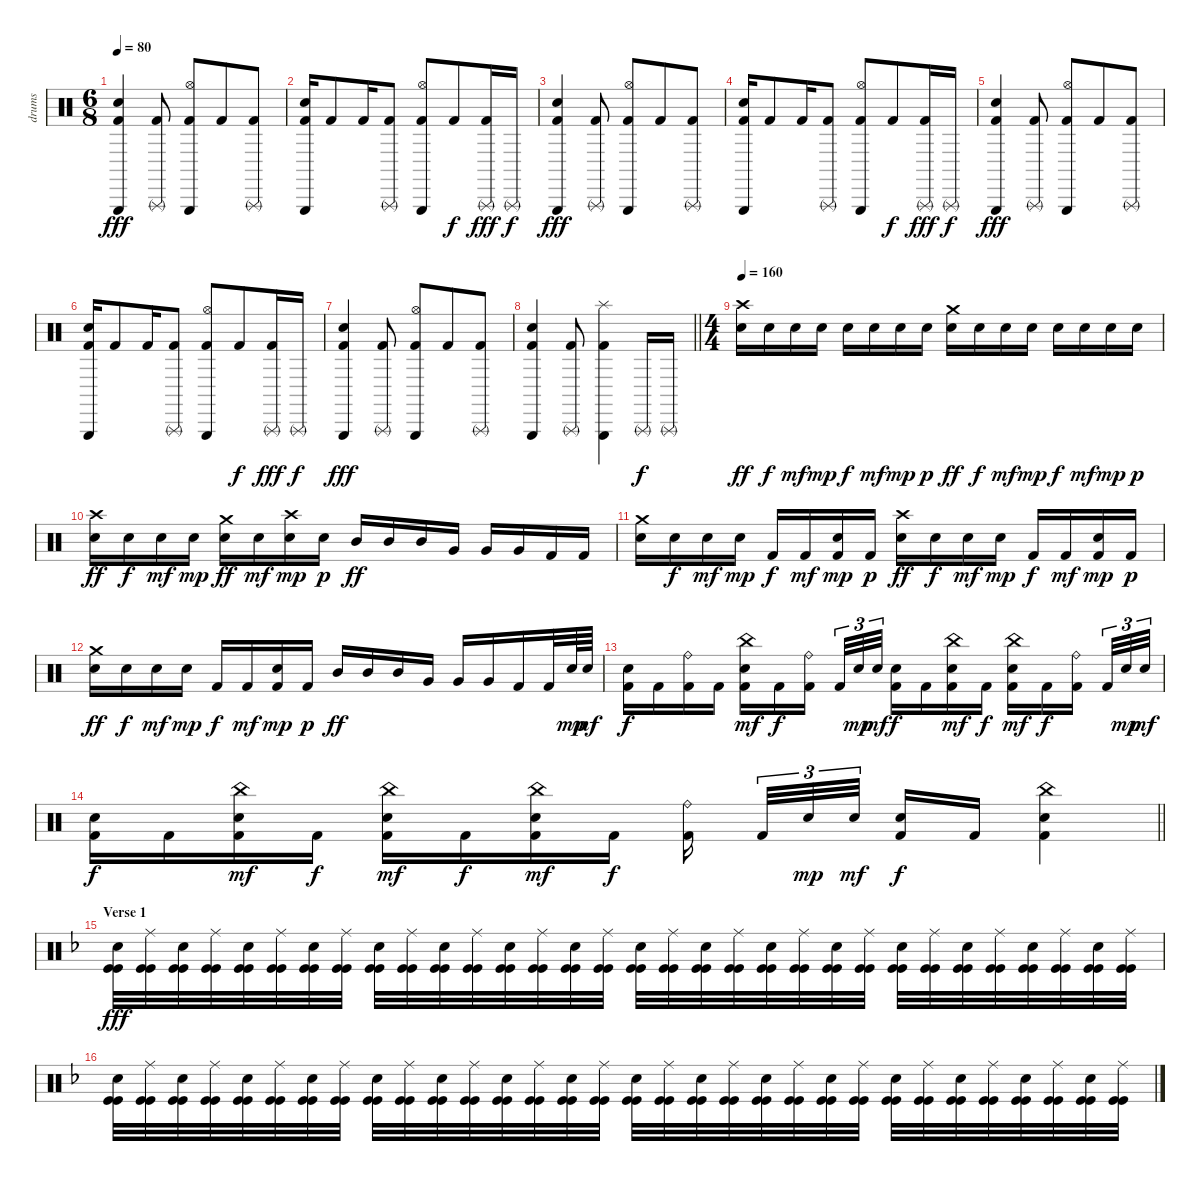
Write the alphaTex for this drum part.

\track ("drums" "drums") {instrument percussion}
\staff {score}
\articulation defaults
\ts (6 8)
\tempo 80
\clef neutral
\ks c
("Kick (hit) 2" "Electric Snare (hit)" "Triangle (hit)").4{dy fff} ("Kick (hit) 2" "Triangle (rnute)").8 ("Kick (hit) 2" "Hi-Hat (open)" "Triangle (hit)").8 "Kick (hit) 2".8 ("Kick (hit) 2" "Triangle (rnute)").8 |
("Kick (hit) 2" "Electric Snare (hit)" "Triangle (hit)").16 "Kick (hit) 2".8 "Kick (hit) 2".16 ("Kick (hit) 2" "Triangle (rnute)").8 ("Kick (hit) 2" "Hi-Hat (open)" "Triangle (hit)").8 "Kick (hit) 2".8{dy f} ("Kick (hit) 2" "Triangle (rnute)").16{dy fff} "Triangle (rnute)".16{dy f} |
("Kick (hit) 2" "Electric Snare (hit)" "Triangle (hit)").4{dy fff} ("Kick (hit) 2" "Triangle (rnute)").8 ("Kick (hit) 2" "Hi-Hat (open)" "Triangle (hit)").8 "Kick (hit) 2".8 ("Kick (hit) 2" "Triangle (rnute)").8 |
("Kick (hit) 2" "Electric Snare (hit)" "Triangle (hit)").16 "Kick (hit) 2".8 "Kick (hit) 2".16 ("Kick (hit) 2" "Triangle (rnute)").8 ("Kick (hit) 2" "Hi-Hat (open)" "Triangle (hit)").8 "Kick (hit) 2".8{dy f} ("Kick (hit) 2" "Triangle (rnute)").16{dy fff} "Triangle (rnute)".16{dy f} |
("Kick (hit) 2" "Electric Snare (hit)" "Triangle (hit)").4{dy fff} ("Kick (hit) 2" "Triangle (rnute)").8 ("Kick (hit) 2" "Hi-Hat (open)" "Triangle (hit)").8 "Kick (hit) 2".8 ("Kick (hit) 2" "Triangle (rnute)").8 |
("Kick (hit) 2" "Electric Snare (hit)" "Triangle (hit)").16 "Kick (hit) 2".8 "Kick (hit) 2".16 ("Kick (hit) 2" "Triangle (rnute)").8 ("Kick (hit) 2" "Hi-Hat (open)" "Triangle (hit)").8 "Kick (hit) 2".8{dy f} ("Kick (hit) 2" "Triangle (rnute)").16{dy fff} "Triangle (rnute)".16{dy f} |
("Kick (hit) 2" "Electric Snare (hit)" "Triangle (hit)").4{dy fff} ("Kick (hit) 2" "Triangle (rnute)").8 ("Kick (hit) 2" "Hi-Hat (open)" "Triangle (hit)").8 "Kick (hit) 2".8 ("Kick (hit) 2" "Triangle (rnute)").8 |
\barLineRight lightlight
("Kick (hit) 2" "Electric Snare (hit)" "Triangle (hit)").4 ("Kick (hit) 2" "Triangle (rnute)").8 ("Kick (hit) 2" "Splash (hit)" "Triangle (hit)").4 "Triangle (rnute)".16{dy f} "Triangle (rnute)".16 |
\ts (4 4)
\tempo 160
("Crash high (hit)" "Electric Snare (hit)").16{dy ff} "Electric Snare (hit)".16{dy f} "Electric Snare (hit)".16{dy mf} "Electric Snare (hit)".16{dy mp} "Electric Snare (hit)".16{dy f} "Electric Snare (hit)".16{dy mf} "Electric Snare (hit)".16{dy mp} "Electric Snare (hit)".16{dy p} ("Crash medium (hit)" "Electric Snare (hit)").16{dy ff} "Electric Snare (hit)".16{dy f} "Electric Snare (hit)".16{dy mf} "Electric Snare (hit)".16{dy mp} "Electric Snare (hit)".16{dy f} "Electric Snare (hit)".16{dy mf} "Electric Snare (hit)".16{dy mp} "Electric Snare (hit)".16{dy p} |
("Crash high (hit)" "Electric Snare (hit)").16{dy ff} "Electric Snare (hit)".16{dy f} "Electric Snare (hit)".16{dy mf} "Electric Snare (hit)".16{dy mp} ("Crash medium (hit)" "Electric Snare (hit)").16{dy ff} "Electric Snare (hit)".16{dy mf} ("Crash high (hit)" "Electric Snare (hit)").16{dy mp} "Electric Snare (hit)".16{dy p} "Mid Tom (hit)".16{dy ff} "Mid Tom (hit)".16 "Mid Tom (hit)".16 "Very Low Tom (hit)".16 "Very Low Tom (hit)".16 "Very Low Tom (hit)".16 "Kick (hit) 2".16 "Kick (hit) 2".16 |
("Crash medium (hit)" "Electric Snare (hit)").16 "Electric Snare (hit)".16{dy f} "Electric Snare (hit)".16{dy mf} "Electric Snare (hit)".16{dy mp} "Kick (hit) 2".16{dy f} "Kick (hit) 2".16{dy mf} ("Electric Snare (hit)" "Kick (hit) 2").16{dy mp} "Kick (hit) 2".16{dy p} ("Crash high (hit)" "Electric Snare (hit)").16{dy ff} "Electric Snare (hit)".16{dy f} "Electric Snare (hit)".16{dy mf} "Electric Snare (hit)".16{dy mp} "Kick (hit) 2".16{dy f} "Kick (hit) 2".16{dy mf} ("Electric Snare (hit)" "Kick (hit) 2").16{dy mp} "Kick (hit) 2".16{dy p} |
("Crash medium (hit)" "Electric Snare (hit)").16{dy ff} "Electric Snare (hit)".16{dy f} "Electric Snare (hit)".16{dy mf} "Electric Snare (hit)".16{dy mp} "Kick (hit) 2".16{dy f} "Kick (hit) 2".16{dy mf} ("Electric Snare (hit)" "Kick (hit) 2").16{dy mp} "Kick (hit) 2".16{dy p} "Mid Tom (hit)".16{dy ff} "Mid Tom (hit)".16 "Mid Tom (hit)".16 "Very Low Tom (hit)".16 "Very Low Tom (hit)".16 "Very Low Tom (hit)".16 "Kick (hit) 2".16 "Kick (hit) 2".32 "Electric Snare (hit)".64{dy mp} "Electric Snare (hit)".64{dy mf} |
("Electric Snare (hit)" "Kick (hit) 2").16{dy f} "Kick (hit) 2".16 ("Ride (bell)" "Kick (hit) 2").16 "Kick (hit) 2".16 ("China (hit)" "Electric Snare (hit)" "Kick (hit) 2").16{dy mf} "Kick (hit) 2".16{dy f} ("Ride (bell)" "Kick (hit) 2").16{beam splitsecondary} "Kick (hit) 2".32{tu (3 2)} "Electric Snare (hit)".32{tu (3 2) dy mp} "Electric Snare (hit)".32{tu (3 2) dy mf} ("Electric Snare (hit)" "Kick (hit) 2").16{dy f} "Kick (hit) 2".16 ("China (hit)" "Electric Snare (hit)" "Kick (hit) 2").16{dy mf} "Kick (hit) 2".16{dy f} ("China (hit)" "Electric Snare (hit)" "Kick (hit) 2").16{dy mf} "Kick (hit) 2".16{dy f} ("Ride (bell)" "Kick (hit) 2").16{beam splitsecondary} "Kick (hit) 2".32{tu (3 2)} "Electric Snare (hit)".32{tu (3 2) dy mp} "Electric Snare (hit)".32{tu (3 2) dy mf} |
\barLineRight lightlight
("Electric Snare (hit)" "Kick (hit) 2").16{dy f} "Kick (hit) 2".16 ("China (hit)" "Electric Snare (hit)" "Kick (hit) 2").16{dy mf} "Kick (hit) 2".16{dy f} ("China (hit)" "Electric Snare (hit)" "Kick (hit) 2").16{dy mf} "Kick (hit) 2".16{dy f} ("China (hit)" "Electric Snare (hit)" "Kick (hit) 2").16{dy mf} "Kick (hit) 2".16{dy f} ("Ride (bell)" "Kick (hit) 2").16{beam splitsecondary} "Kick (hit) 2".32{tu (3 2)} "Electric Snare (hit)".32{tu (3 2) dy mp} "Electric Snare (hit)".32{tu (3 2) dy mf beam splitsecondary} ("Electric Snare (hit)" "Kick (hit) 2").16{dy f} "Kick (hit) 2".16 ("China (hit)" "Electric Snare (hit)" "Kick (hit) 2").4 |
\section ("" "Verse 1")
\ks dminor
("Kick (hit)" "Kick (hit)" "Electric Snare (hit)").32{dy fff} ("Kick (hit)" "Kick (hit)" "Ride (middle)").32 ("Kick (hit)" "Kick (hit)" "Electric Snare (hit)").32 ("Kick (hit)" "Kick (hit)" "Ride (middle)").32 ("Kick (hit)" "Kick (hit)" "Electric Snare (hit)").32 ("Kick (hit)" "Kick (hit)" "Ride (middle)").32 ("Kick (hit)" "Kick (hit)" "Electric Snare (hit)").32 ("Kick (hit)" "Kick (hit)" "Ride (middle)").32 ("Kick (hit)" "Kick (hit)" "Electric Snare (hit)").32 ("Kick (hit)" "Kick (hit)" "Ride (middle)").32 ("Kick (hit)" "Kick (hit)" "Electric Snare (hit)").32 ("Kick (hit)" "Kick (hit)" "Ride (middle)").32 ("Kick (hit)" "Kick (hit)" "Electric Snare (hit)").32 ("Kick (hit)" "Kick (hit)" "Ride (middle)").32 ("Kick (hit)" "Kick (hit)" "Electric Snare (hit)").32 ("Kick (hit)" "Kick (hit)" "Ride (middle)").32 ("Kick (hit)" "Kick (hit)" "Electric Snare (hit)").32 ("Kick (hit)" "Kick (hit)" "Ride (middle)").32 ("Kick (hit)" "Kick (hit)" "Electric Snare (hit)").32 ("Kick (hit)" "Kick (hit)" "Ride (middle)").32 ("Kick (hit)" "Kick (hit)" "Electric Snare (hit)").32 ("Kick (hit)" "Kick (hit)" "Ride (middle)").32 ("Kick (hit)" "Kick (hit)" "Electric Snare (hit)").32 ("Kick (hit)" "Kick (hit)" "Ride (middle)").32 ("Kick (hit)" "Kick (hit)" "Electric Snare (hit)").32 ("Kick (hit)" "Kick (hit)" "Ride (middle)").32 ("Kick (hit)" "Kick (hit)" "Electric Snare (hit)").32 ("Kick (hit)" "Kick (hit)" "Ride (middle)").32 ("Kick (hit)" "Kick (hit)" "Electric Snare (hit)").32 ("Kick (hit)" "Kick (hit)" "Ride (middle)").32 ("Kick (hit)" "Kick (hit)" "Electric Snare (hit)").32 ("Kick (hit)" "Kick (hit)" "Ride (middle)").32 |
("Kick (hit)" "Kick (hit)" "Electric Snare (hit)").32 ("Kick (hit)" "Kick (hit)" "Ride (middle)").32 ("Kick (hit)" "Kick (hit)" "Electric Snare (hit)").32 ("Kick (hit)" "Kick (hit)" "Ride (middle)").32 ("Kick (hit)" "Kick (hit)" "Electric Snare (hit)").32 ("Kick (hit)" "Kick (hit)" "Ride (middle)").32 ("Kick (hit)" "Kick (hit)" "Electric Snare (hit)").32 ("Kick (hit)" "Kick (hit)" "Ride (middle)").32 ("Kick (hit)" "Kick (hit)" "Electric Snare (hit)").32 ("Kick (hit)" "Kick (hit)" "Ride (middle)").32 ("Kick (hit)" "Kick (hit)" "Electric Snare (hit)").32 ("Kick (hit)" "Kick (hit)" "Ride (middle)").32 ("Kick (hit)" "Kick (hit)" "Electric Snare (hit)").32 ("Kick (hit)" "Kick (hit)" "Ride (middle)").32 ("Kick (hit)" "Kick (hit)" "Electric Snare (hit)").32 ("Kick (hit)" "Kick (hit)" "Ride (middle)").32 ("Kick (hit)" "Kick (hit)" "Electric Snare (hit)").32 ("Kick (hit)" "Kick (hit)" "Ride (middle)").32 ("Kick (hit)" "Kick (hit)" "Electric Snare (hit)").32 ("Kick (hit)" "Kick (hit)" "Ride (middle)").32 ("Kick (hit)" "Kick (hit)" "Electric Snare (hit)").32 ("Kick (hit)" "Kick (hit)" "Ride (middle)").32 ("Kick (hit)" "Kick (hit)" "Electric Snare (hit)").32 ("Kick (hit)" "Kick (hit)" "Ride (middle)").32 ("Kick (hit)" "Kick (hit)" "Electric Snare (hit)").32 ("Kick (hit)" "Kick (hit)" "Ride (middle)").32 ("Kick (hit)" "Kick (hit)" "Electric Snare (hit)").32 ("Kick (hit)" "Kick (hit)" "Ride (middle)").32 ("Kick (hit)" "Kick (hit)" "Electric Snare (hit)").32 ("Kick (hit)" "Kick (hit)" "Ride (middle)").32 ("Kick (hit)" "Kick (hit)" "Electric Snare (hit)").32 ("Kick (hit)" "Kick (hit)" "Ride (middle)").32
